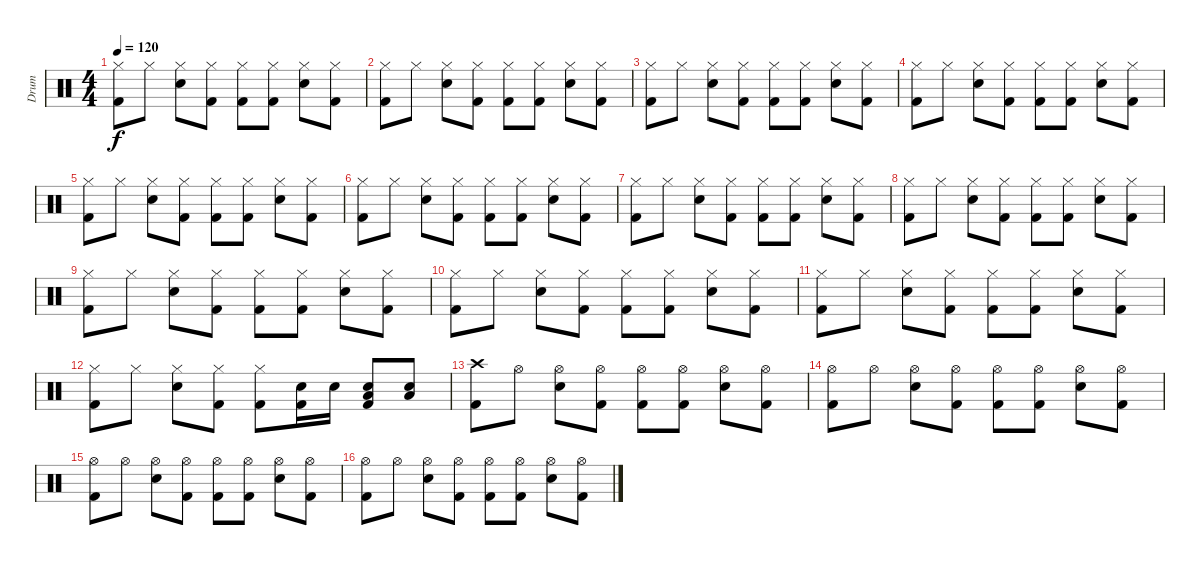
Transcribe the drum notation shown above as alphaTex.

\track ("Drum" "Drum") {instrument percussion}
\staff {score}
\articulation defaults
\ts (4 4)
\tempo 120
\clef neutral
\ks c
("Hi-Hat (closed)" "Kick (hit) 2").8{dy f} "Hi-Hat (closed)".8 ("Hi-Hat (closed)" "Snare (hit) 2").8 ("Hi-Hat (closed)" "Kick (hit) 2").8 ("Hi-Hat (closed)" "Kick (hit) 2").8 ("Hi-Hat (closed)" "Kick (hit) 2").8 ("Hi-Hat (closed)" "Snare (hit) 2").8 ("Hi-Hat (closed)" "Kick (hit) 2").8 |
("Hi-Hat (closed)" "Kick (hit) 2").8 "Hi-Hat (closed)".8 ("Hi-Hat (closed)" "Snare (hit) 2").8 ("Hi-Hat (closed)" "Kick (hit) 2").8 ("Hi-Hat (closed)" "Kick (hit) 2").8 ("Hi-Hat (closed)" "Kick (hit) 2").8 ("Hi-Hat (closed)" "Snare (hit) 2").8 ("Hi-Hat (closed)" "Kick (hit) 2").8 |
("Hi-Hat (closed)" "Kick (hit) 2").8 "Hi-Hat (closed)".8 ("Hi-Hat (closed)" "Snare (hit) 2").8 ("Hi-Hat (closed)" "Kick (hit) 2").8 ("Hi-Hat (closed)" "Kick (hit) 2").8 ("Hi-Hat (closed)" "Kick (hit) 2").8 ("Hi-Hat (closed)" "Snare (hit) 2").8 ("Hi-Hat (closed)" "Kick (hit) 2").8 |
("Hi-Hat (closed)" "Kick (hit) 2").8 "Hi-Hat (closed)".8 ("Hi-Hat (closed)" "Snare (hit) 2").8 ("Hi-Hat (closed)" "Kick (hit) 2").8 ("Hi-Hat (closed)" "Kick (hit) 2").8 ("Hi-Hat (closed)" "Kick (hit) 2").8 ("Hi-Hat (closed)" "Snare (hit) 2").8 ("Hi-Hat (closed)" "Kick (hit) 2").8 |
("Hi-Hat (closed)" "Kick (hit) 2").8 "Hi-Hat (closed)".8 ("Hi-Hat (closed)" "Snare (hit) 2").8 ("Hi-Hat (closed)" "Kick (hit) 2").8 ("Hi-Hat (closed)" "Kick (hit) 2").8 ("Hi-Hat (closed)" "Kick (hit) 2").8 ("Hi-Hat (closed)" "Snare (hit) 2").8 ("Hi-Hat (closed)" "Kick (hit) 2").8 |
("Hi-Hat (closed)" "Kick (hit) 2").8 "Hi-Hat (closed)".8 ("Hi-Hat (closed)" "Snare (hit) 2").8 ("Hi-Hat (closed)" "Kick (hit) 2").8 ("Hi-Hat (closed)" "Kick (hit) 2").8 ("Hi-Hat (closed)" "Kick (hit) 2").8 ("Hi-Hat (closed)" "Snare (hit) 2").8 ("Hi-Hat (closed)" "Kick (hit) 2").8 |
("Hi-Hat (closed)" "Kick (hit) 2").8 "Hi-Hat (closed)".8 ("Hi-Hat (closed)" "Snare (hit) 2").8 ("Hi-Hat (closed)" "Kick (hit) 2").8 ("Hi-Hat (closed)" "Kick (hit) 2").8 ("Hi-Hat (closed)" "Kick (hit) 2").8 ("Hi-Hat (closed)" "Snare (hit) 2").8 ("Hi-Hat (closed)" "Kick (hit) 2").8 |
("Hi-Hat (closed)" "Kick (hit) 2").8 "Hi-Hat (closed)".8 ("Hi-Hat (closed)" "Snare (hit) 2").8 ("Hi-Hat (closed)" "Kick (hit) 2").8 ("Hi-Hat (closed)" "Kick (hit) 2").8 ("Hi-Hat (closed)" "Kick (hit) 2").8 ("Hi-Hat (closed)" "Snare (hit) 2").8 ("Hi-Hat (closed)" "Kick (hit) 2").8 |
("Hi-Hat (closed)" "Kick (hit) 2").8 "Hi-Hat (closed)".8 ("Hi-Hat (closed)" "Snare (hit) 2").8 ("Hi-Hat (closed)" "Kick (hit) 2").8 ("Hi-Hat (closed)" "Kick (hit) 2").8 ("Hi-Hat (closed)" "Kick (hit) 2").8 ("Hi-Hat (closed)" "Snare (hit) 2").8 ("Hi-Hat (closed)" "Kick (hit) 2").8 |
("Hi-Hat (closed)" "Kick (hit) 2").8 "Hi-Hat (closed)".8 ("Hi-Hat (closed)" "Snare (hit) 2").8 ("Hi-Hat (closed)" "Kick (hit) 2").8 ("Hi-Hat (closed)" "Kick (hit) 2").8 ("Hi-Hat (closed)" "Kick (hit) 2").8 ("Hi-Hat (closed)" "Snare (hit) 2").8 ("Hi-Hat (closed)" "Kick (hit) 2").8 |
("Hi-Hat (closed)" "Kick (hit) 2").8 "Hi-Hat (closed)".8 ("Hi-Hat (closed)" "Snare (hit) 2").8 ("Hi-Hat (closed)" "Kick (hit) 2").8 ("Hi-Hat (closed)" "Kick (hit) 2").8 ("Hi-Hat (closed)" "Kick (hit) 2").8 ("Hi-Hat (closed)" "Snare (hit) 2").8 ("Hi-Hat (closed)" "Kick (hit) 2").8 |
("Hi-Hat (closed)" "Kick (hit) 2").8 "Hi-Hat (closed)".8 ("Hi-Hat (closed)" "Snare (hit) 2").8 ("Hi-Hat (closed)" "Kick (hit) 2").8 ("Hi-Hat (closed)" "Kick (hit) 2").8 ("Snare (hit) 2" "Kick (hit) 2").16 "Snare (hit) 2".16 ("Low Tom (hit)" "Snare (hit) 2" "Kick (hit) 2").8 ("Low Floor Tom (hit)" "Snare (hit) 2").8 |
("Crash high (hit)" "Kick (hit) 2").8 "Hi-Hat (open)".8 ("Hi-Hat (open)" "Snare (hit) 2").8 ("Hi-Hat (open)" "Kick (hit) 2").8 ("Hi-Hat (open)" "Kick (hit) 2").8 ("Hi-Hat (open)" "Kick (hit) 2").8 ("Hi-Hat (open)" "Snare (hit) 2").8 ("Hi-Hat (open)" "Kick (hit) 2").8 |
("Hi-Hat (open)" "Kick (hit) 2").8 "Hi-Hat (open)".8 ("Hi-Hat (open)" "Snare (hit) 2").8 ("Hi-Hat (open)" "Kick (hit) 2").8 ("Hi-Hat (open)" "Kick (hit) 2").8 ("Hi-Hat (open)" "Kick (hit) 2").8 ("Hi-Hat (open)" "Snare (hit) 2").8 ("Hi-Hat (open)" "Kick (hit) 2").8 |
("Hi-Hat (open)" "Kick (hit) 2").8 "Hi-Hat (open)".8 ("Hi-Hat (open)" "Snare (hit) 2").8 ("Hi-Hat (open)" "Kick (hit) 2").8 ("Hi-Hat (open)" "Kick (hit) 2").8 ("Hi-Hat (open)" "Kick (hit) 2").8 ("Hi-Hat (open)" "Snare (hit) 2").8 ("Hi-Hat (open)" "Kick (hit) 2").8 |
("Hi-Hat (open)" "Kick (hit) 2").8 "Hi-Hat (open)".8 ("Hi-Hat (open)" "Snare (hit) 2").8 ("Hi-Hat (open)" "Kick (hit) 2").8 ("Hi-Hat (open)" "Kick (hit) 2").8 ("Hi-Hat (open)" "Kick (hit) 2").8 ("Hi-Hat (open)" "Snare (hit) 2").8 ("Hi-Hat (open)" "Kick (hit) 2").8
